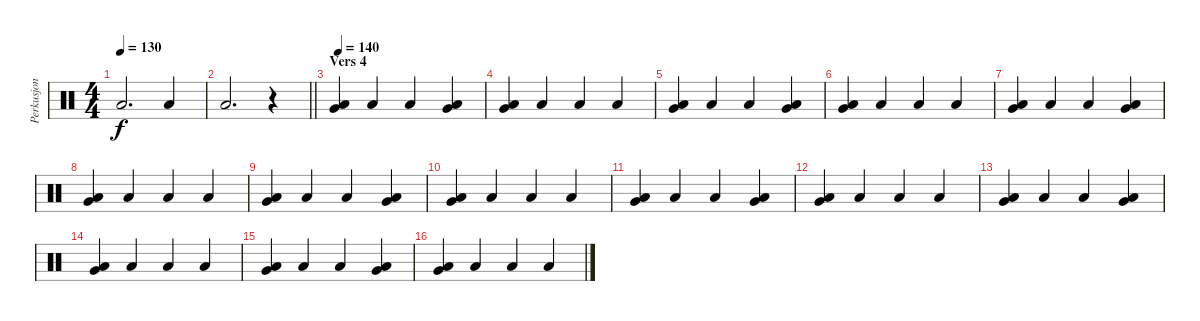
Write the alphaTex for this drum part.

\track ("Perkusjon" "Perkusjon") {instrument percussion}
\staff {score}
\articulation defaults
\ts (4 4)
\tempo 130
\clef neutral
\ks c "Low Floor Tom (hit)".2{d dy f} "Low Floor Tom (hit)".4
|
\barLineRight lightlight "Low Floor Tom (hit)".2{d}
r.4 |
\section ("" "Vers 4")
\tempo 140
("Very Low Tom (hit)" "Low Floor Tom (hit)").4 "Low Floor Tom (hit)".4 "Low Floor Tom (hit)".4 ("Very Low Tom (hit)" "Low Floor Tom (hit)").4 |
("Very Low Tom (hit)" "Low Floor Tom (hit)").4 "Low Floor Tom (hit)".4 "Low Floor Tom (hit)".4 "Low Floor Tom (hit)".4 |
("Very Low Tom (hit)" "Low Floor Tom (hit)").4 "Low Floor Tom (hit)".4 "Low Floor Tom (hit)".4 ("Very Low Tom (hit)" "Low Floor Tom (hit)").4 |
("Very Low Tom (hit)" "Low Floor Tom (hit)").4 "Low Floor Tom (hit)".4 "Low Floor Tom (hit)".4 "Low Floor Tom (hit)".4 |
("Very Low Tom (hit)" "Low Floor Tom (hit)").4 "Low Floor Tom (hit)".4 "Low Floor Tom (hit)".4 ("Very Low Tom (hit)" "Low Floor Tom (hit)").4 |
("Very Low Tom (hit)" "Low Floor Tom (hit)").4 "Low Floor Tom (hit)".4 "Low Floor Tom (hit)".4 "Low Floor Tom (hit)".4 |
("Very Low Tom (hit)" "Low Floor Tom (hit)").4 "Low Floor Tom (hit)".4 "Low Floor Tom (hit)".4 ("Very Low Tom (hit)" "Low Floor Tom (hit)").4 |
("Very Low Tom (hit)" "Low Floor Tom (hit)").4 "Low Floor Tom (hit)".4 "Low Floor Tom (hit)".4 "Low Floor Tom (hit)".4 |
("Very Low Tom (hit)" "Low Floor Tom (hit)").4 "Low Floor Tom (hit)".4 "Low Floor Tom (hit)".4 ("Very Low Tom (hit)" "Low Floor Tom (hit)").4 |
("Very Low Tom (hit)" "Low Floor Tom (hit)").4 "Low Floor Tom (hit)".4 "Low Floor Tom (hit)".4 "Low Floor Tom (hit)".4 |
("Very Low Tom (hit)" "Low Floor Tom (hit)").4 "Low Floor Tom (hit)".4 "Low Floor Tom (hit)".4 ("Very Low Tom (hit)" "Low Floor Tom (hit)").4 |
("Very Low Tom (hit)" "Low Floor Tom (hit)").4 "Low Floor Tom (hit)".4 "Low Floor Tom (hit)".4 "Low Floor Tom (hit)".4 |
("Very Low Tom (hit)" "Low Floor Tom (hit)").4 "Low Floor Tom (hit)".4 "Low Floor Tom (hit)".4 ("Very Low Tom (hit)" "Low Floor Tom (hit)").4 |
("Very Low Tom (hit)" "Low Floor Tom (hit)").4 "Low Floor Tom (hit)".4 "Low Floor Tom (hit)".4 "Low Floor Tom (hit)".4
